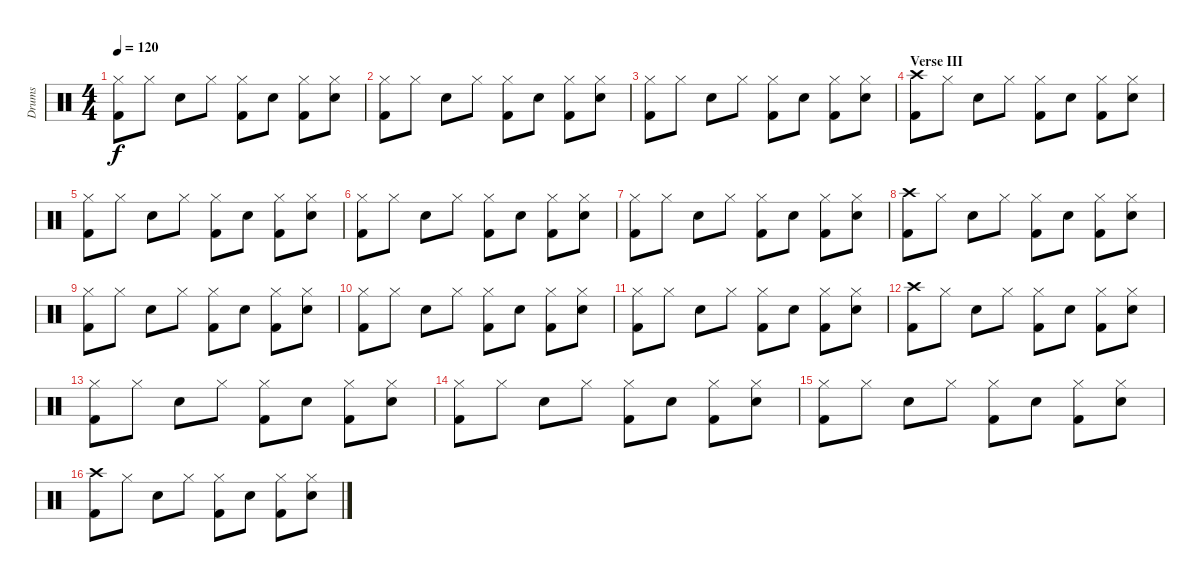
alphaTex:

\track ("Drums" "Drums") {instrument percussion}
\staff {score}
\articulation defaults
\ts (4 4)
\tempo 120
\clef neutral
\ks c
("Kick (hit) 2" "Hi-Hat (closed)").8{dy f} "Hi-Hat (closed)".8 "Snare (hit) 2".8 "Hi-Hat (closed)".8 ("Kick (hit) 2" "Hi-Hat (closed)").8 "Snare (hit) 2".8 ("Kick (hit) 2" "Hi-Hat (closed)").8 ("Snare (hit) 2" "Hi-Hat (closed)").8 |
("Kick (hit) 2" "Hi-Hat (closed)").8 "Hi-Hat (closed)".8 "Snare (hit) 2".8 "Hi-Hat (closed)".8 ("Kick (hit) 2" "Hi-Hat (closed)").8 "Snare (hit) 2".8 ("Kick (hit) 2" "Hi-Hat (closed)").8 ("Snare (hit) 2" "Hi-Hat (closed)").8 |
("Kick (hit) 2" "Hi-Hat (closed)").8 "Hi-Hat (closed)".8 "Snare (hit) 2".8 "Hi-Hat (closed)".8 ("Kick (hit) 2" "Hi-Hat (closed)").8 "Snare (hit) 2".8 ("Kick (hit) 2" "Hi-Hat (closed)").8 ("Snare (hit) 2" "Hi-Hat (closed)").8 |
\section ("" "Verse III")
("Kick (hit) 2" "Crash high (hit)").8 "Hi-Hat (closed)".8 "Snare (hit) 2".8 "Hi-Hat (closed)".8 ("Kick (hit) 2" "Hi-Hat (closed)").8 "Snare (hit) 2".8 ("Kick (hit) 2" "Hi-Hat (closed)").8 ("Snare (hit) 2" "Hi-Hat (closed)").8 |
("Kick (hit) 2" "Hi-Hat (closed)").8 "Hi-Hat (closed)".8 "Snare (hit) 2".8 "Hi-Hat (closed)".8 ("Kick (hit) 2" "Hi-Hat (closed)").8 "Snare (hit) 2".8 ("Kick (hit) 2" "Hi-Hat (closed)").8 ("Snare (hit) 2" "Hi-Hat (closed)").8 |
("Kick (hit) 2" "Hi-Hat (closed)").8 "Hi-Hat (closed)".8 "Snare (hit) 2".8 "Hi-Hat (closed)".8 ("Kick (hit) 2" "Hi-Hat (closed)").8 "Snare (hit) 2".8 ("Kick (hit) 2" "Hi-Hat (closed)").8 ("Snare (hit) 2" "Hi-Hat (closed)").8 |
("Kick (hit) 2" "Hi-Hat (closed)").8 "Hi-Hat (closed)".8 "Snare (hit) 2".8 "Hi-Hat (closed)".8 ("Kick (hit) 2" "Hi-Hat (closed)").8 "Snare (hit) 2".8 ("Kick (hit) 2" "Hi-Hat (closed)").8 ("Snare (hit) 2" "Hi-Hat (closed)").8 |
("Kick (hit) 2" "Crash high (hit)").8 "Hi-Hat (closed)".8 "Snare (hit) 2".8 "Hi-Hat (closed)".8 ("Kick (hit) 2" "Hi-Hat (closed)").8 "Snare (hit) 2".8 ("Kick (hit) 2" "Hi-Hat (closed)").8 ("Snare (hit) 2" "Hi-Hat (closed)").8 |
("Kick (hit) 2" "Hi-Hat (closed)").8 "Hi-Hat (closed)".8 "Snare (hit) 2".8 "Hi-Hat (closed)".8 ("Kick (hit) 2" "Hi-Hat (closed)").8 "Snare (hit) 2".8 ("Kick (hit) 2" "Hi-Hat (closed)").8 ("Snare (hit) 2" "Hi-Hat (closed)").8 |
("Kick (hit) 2" "Hi-Hat (closed)").8 "Hi-Hat (closed)".8 "Snare (hit) 2".8 "Hi-Hat (closed)".8 ("Kick (hit) 2" "Hi-Hat (closed)").8 "Snare (hit) 2".8 ("Kick (hit) 2" "Hi-Hat (closed)").8 ("Snare (hit) 2" "Hi-Hat (closed)").8 |
("Kick (hit) 2" "Hi-Hat (closed)").8 "Hi-Hat (closed)".8 "Snare (hit) 2".8 "Hi-Hat (closed)".8 ("Kick (hit) 2" "Hi-Hat (closed)").8 "Snare (hit) 2".8 ("Kick (hit) 2" "Hi-Hat (closed)").8 ("Snare (hit) 2" "Hi-Hat (closed)").8 |
("Kick (hit) 2" "Crash high (hit)").8 "Hi-Hat (closed)".8 "Snare (hit) 2".8 "Hi-Hat (closed)".8 ("Kick (hit) 2" "Hi-Hat (closed)").8 "Snare (hit) 2".8 ("Kick (hit) 2" "Hi-Hat (closed)").8 ("Snare (hit) 2" "Hi-Hat (closed)").8 |
("Kick (hit) 2" "Hi-Hat (closed)").8 "Hi-Hat (closed)".8 "Snare (hit) 2".8 "Hi-Hat (closed)".8 ("Kick (hit) 2" "Hi-Hat (closed)").8 "Snare (hit) 2".8 ("Kick (hit) 2" "Hi-Hat (closed)").8 ("Snare (hit) 2" "Hi-Hat (closed)").8 |
("Kick (hit) 2" "Hi-Hat (closed)").8 "Hi-Hat (closed)".8 "Snare (hit) 2".8 "Hi-Hat (closed)".8 ("Kick (hit) 2" "Hi-Hat (closed)").8 "Snare (hit) 2".8 ("Kick (hit) 2" "Hi-Hat (closed)").8 ("Snare (hit) 2" "Hi-Hat (closed)").8 |
("Kick (hit) 2" "Hi-Hat (closed)").8 "Hi-Hat (closed)".8 "Snare (hit) 2".8 "Hi-Hat (closed)".8 ("Kick (hit) 2" "Hi-Hat (closed)").8 "Snare (hit) 2".8 ("Kick (hit) 2" "Hi-Hat (closed)").8 ("Snare (hit) 2" "Hi-Hat (closed)").8 |
("Kick (hit) 2" "Crash high (hit)").8 "Hi-Hat (closed)".8 "Snare (hit) 2".8 "Hi-Hat (closed)".8 ("Kick (hit) 2" "Hi-Hat (closed)").8 "Snare (hit) 2".8 ("Kick (hit) 2" "Hi-Hat (closed)").8 ("Snare (hit) 2" "Hi-Hat (closed)").8
